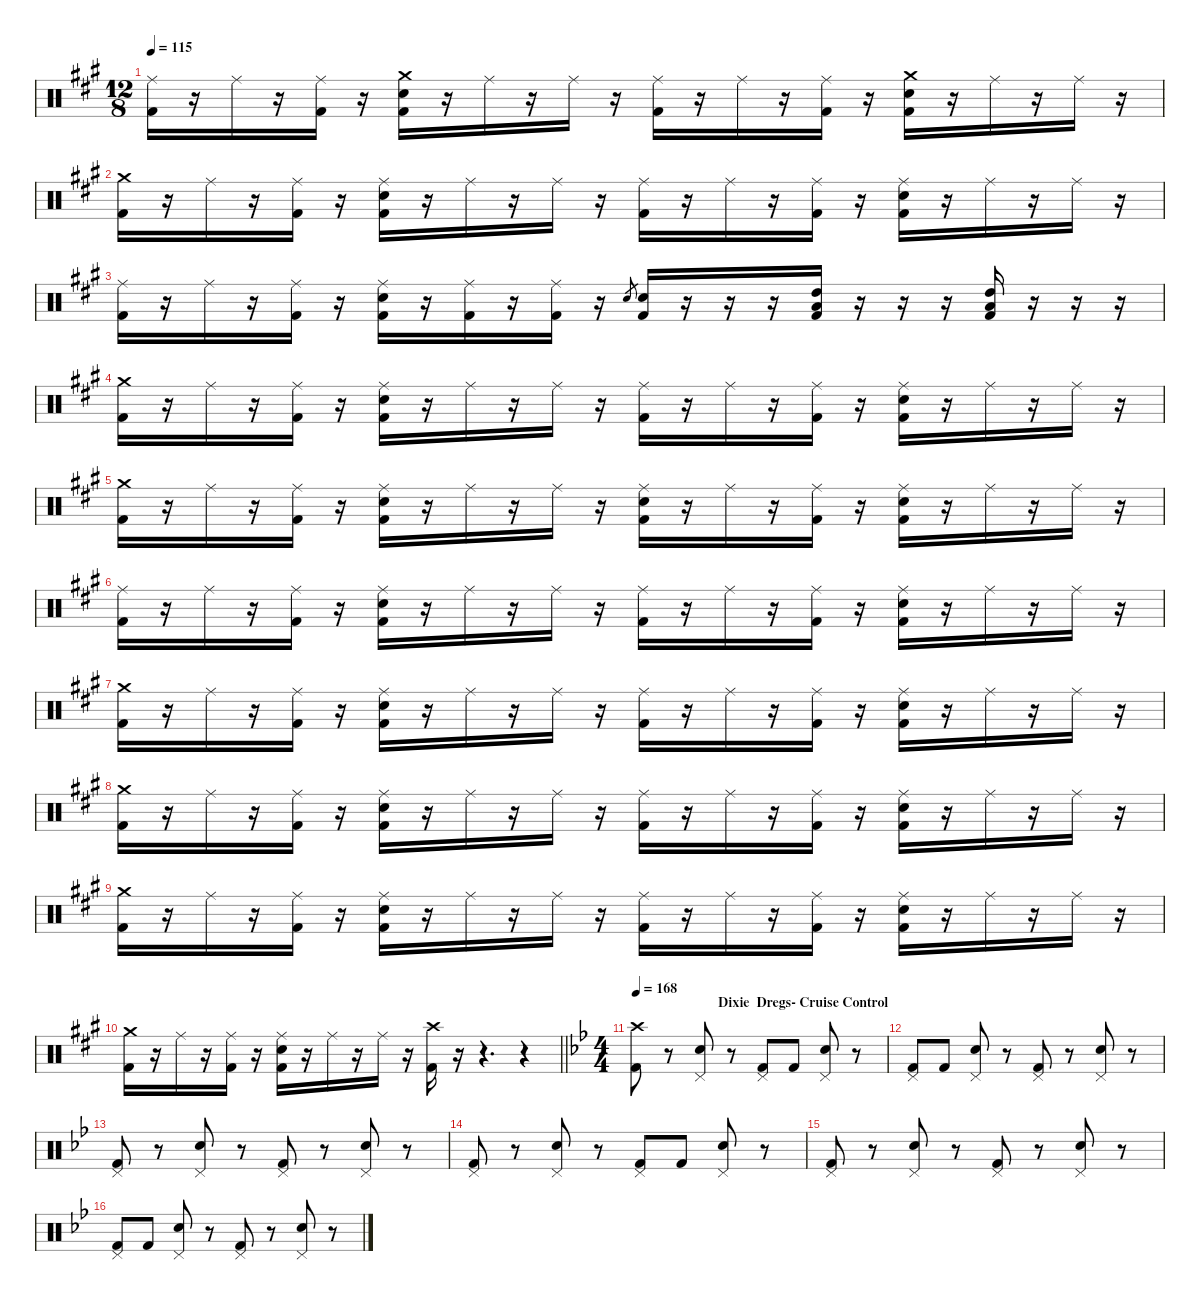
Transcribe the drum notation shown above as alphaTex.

\defaultSystemsLayout 4
\hideDynamics
\bracketExtendMode nobrackets
\singleTrackTrackNamePolicy hidden
\multiTrackTrackNamePolicy hidden
\firstSystemTrackNameMode fullname
\otherSystemsTrackNameOrientation horizontal
\track ("DRUMS" "drm.") {instrument percussion}
\staff {score}
\articulation defaults
\ts (12 8)
\tempo 115
\clef neutral
\ks a
("Ride (middle)"{acc forcenatural} "Kick (hit) 2"{acc forcenatural}).16{dy f beam Down} r.16{beam Down} "Ride (middle)"{acc forcenatural}.16{dy ff beam Down} r.16{beam Down} ("Ride (middle)"{acc forcenatural} "Kick (hit) 2"{acc forcenatural}).16{beam Down} r.16{beam Down} ("Crash medium (hit)"{acc forcenatural} "Snare (hit) 2"{acc forcenatural} "Kick (hit) 2"{acc forcenatural}).16{dy f beam Down} r.16{beam Down} "Ride (middle)"{acc forcenatural}.16{dy ff beam Down} r.16{beam Down} "Ride (middle)"{acc forcenatural}.16{beam Down} r.16{beam Down} ("Ride (middle)"{acc forcenatural} "Kick (hit) 2"{acc forcenatural}).16{dy f beam Down} r.16{beam Down} "Ride (middle)"{acc forcenatural}.16{dy ff beam Down} r.16{beam Down} ("Ride (middle)"{acc forcenatural} "Kick (hit) 2"{acc forcenatural}).16{beam Down} r.16{beam Down} ("Crash medium (hit)"{acc forcenatural} "Snare (hit) 2"{acc forcenatural} "Kick (hit) 2"{acc forcenatural}).16{dy f beam Down} r.16{beam Down} "Ride (middle)"{acc forcenatural}.16{dy ff beam Down} r.16{beam Down} "Ride (middle)"{acc forcenatural}.16{beam Down} r.16{beam Down} |
("Crash medium (hit)"{acc forcenatural} "Kick (hit) 2"{acc forcenatural}).16{dy f beam Down} r.16{beam Down} "Ride (middle)"{acc forcenatural}.16{dy ff beam Down} r.16{beam Down} ("Ride (middle)"{acc forcenatural} "Kick (hit) 2"{acc forcenatural}).16{beam Down} r.16{beam Down} ("Ride (middle)"{acc forcenatural} "Snare (hit) 2"{acc forcenatural} "Kick (hit) 2"{acc forcenatural}).16{dy f beam Down} r.16{beam Down} "Ride (middle)"{acc forcenatural}.16{dy ff beam Down} r.16{beam Down} "Ride (middle)"{acc forcenatural}.16{beam Down} r.16{beam Down} ("Ride (middle)"{acc forcenatural} "Kick (hit) 2"{acc forcenatural}).16{dy f beam Down} r.16{beam Down} "Ride (middle)"{acc forcenatural}.16{dy ff beam Down} r.16{beam Down} ("Ride (middle)"{acc forcenatural} "Kick (hit) 2"{acc forcenatural}).16{beam Down} r.16{beam Down} ("Ride (middle)"{acc forcenatural} "Snare (hit) 2"{acc forcenatural} "Kick (hit) 2"{acc forcenatural}).16{dy f beam Down} r.16{beam Down} "Ride (middle)"{acc forcenatural}.16{dy ff beam Down} r.16{beam Down} "Ride (middle)"{acc forcenatural}.16{beam Down} r.16{beam Down} |
("Ride (middle)"{acc forcenatural} "Kick (hit) 2"{acc forcenatural}).16{dy f beam Down} r.16{beam Down} "Ride (middle)"{acc forcenatural}.16{dy ff beam Down} r.16{beam Down} ("Ride (middle)"{acc forcenatural} "Kick (hit) 2"{acc forcenatural}).16{beam Down} r.16{beam Down} ("Ride (middle)"{acc forcenatural} "Snare (hit) 2"{acc forcenatural} "Kick (hit) 2"{acc forcenatural}).16{dy f beam Down} r.16{beam Down} ("Ride (middle)"{acc forcenatural} "Kick (hit) 2"{acc forcenatural}).16{dy ff beam Down} r.16{beam Down} ("Ride (middle)"{acc forcenatural} "Kick (hit) 2"{acc forcenatural}).16{beam Down} r.16{beam Down} "Electric Snare (hit)"{acc forcenatural}.8{gr dy f beam Up} ("Snare (hit) 2"{acc forcenatural} "Kick (hit) 2"{acc forcenatural}).16{dy ff beam Up} r.16{beam Up} r.16{beam Up} r.16{beam Up} ("High Tom (hit)"{acc forcenatural} "Low Tom (hit)"{acc forcenatural} "Kick (hit) 2"{acc forcenatural}).16{beam Up} r.16{beam Up} r.16{beam Up} r.16{beam Up} ("High Tom (hit)"{acc forcenatural} "Low Tom (hit)"{acc forcenatural} "Kick (hit) 2"{acc forcenatural}).16{beam Up} r.16{beam Up} r.16{beam Up} r.16{beam Up} |
("Crash medium (hit)"{acc forcenatural} "Kick (hit) 2"{acc forcenatural}).16{dy f beam Down} r.16{beam Down} "Ride (middle)"{acc forcenatural}.16{dy ff beam Down} r.16{beam Down} ("Ride (middle)"{acc forcenatural} "Kick (hit) 2"{acc forcenatural}).16{beam Down} r.16{beam Down} ("Ride (middle)"{acc forcenatural} "Snare (hit) 2"{acc forcenatural} "Kick (hit) 2"{acc forcenatural}).16{dy f beam Down} r.16{beam Down} "Ride (middle)"{acc forcenatural}.16{dy ff beam Down} r.16{beam Down} "Ride (middle)"{acc forcenatural}.16{beam Down} r.16{beam Down} ("Ride (middle)"{acc forcenatural} "Kick (hit) 2"{acc forcenatural}).16{dy f beam Down} r.16{beam Down} "Ride (middle)"{acc forcenatural}.16{dy ff beam Down} r.16{beam Down} ("Ride (middle)"{acc forcenatural} "Kick (hit) 2"{acc forcenatural}).16{beam Down} r.16{beam Down} ("Ride (middle)"{acc forcenatural} "Snare (hit) 2"{acc forcenatural} "Kick (hit) 2"{acc forcenatural}).16{dy f beam Down} r.16{beam Down} "Ride (middle)"{acc forcenatural}.16{dy ff beam Down} r.16{beam Down} "Ride (middle)"{acc forcenatural}.16{beam Down} r.16{beam Down} |
("Crash medium (hit)"{acc forcenatural} "Kick (hit) 2"{acc forcenatural}).16{dy f beam Down} r.16{beam Down} "Ride (middle)"{acc forcenatural}.16{dy ff beam Down} r.16{beam Down} ("Ride (middle)"{acc forcenatural} "Kick (hit) 2"{acc forcenatural}).16{beam Down} r.16{beam Down} ("Ride (middle)"{acc forcenatural} "Snare (hit) 2"{acc forcenatural} "Kick (hit) 2"{acc forcenatural}).16{dy f beam Down} r.16{beam Down} "Ride (middle)"{acc forcenatural}.16{dy ff beam Down} r.16{beam Down} "Ride (middle)"{acc forcenatural}.16{beam Down} r.16{beam Down} ("Ride (middle)"{acc forcenatural} "Snare (hit) 2"{acc forcenatural} "Kick (hit) 2"{acc forcenatural}).16{dy f beam Down} r.16{beam Down} "Ride (middle)"{acc forcenatural}.16{dy ff beam Down} r.16{beam Down} ("Ride (middle)"{acc forcenatural} "Kick (hit) 2"{acc forcenatural}).16{beam Down} r.16{beam Down} ("Ride (middle)"{acc forcenatural} "Snare (hit) 2"{acc forcenatural} "Kick (hit) 2"{acc forcenatural}).16{dy f beam Down} r.16{beam Down} "Ride (middle)"{acc forcenatural}.16{dy ff beam Down} r.16{beam Down} "Ride (middle)"{acc forcenatural}.16{beam Down} r.16{beam Down} |
("Ride (middle)"{acc forcenatural} "Kick (hit) 2"{acc forcenatural}).16{dy f beam Down} r.16{beam Down} "Ride (middle)"{acc forcenatural}.16{dy ff beam Down} r.16{beam Down} ("Ride (middle)"{acc forcenatural} "Kick (hit) 2"{acc forcenatural}).16{beam Down} r.16{beam Down} ("Ride (middle)"{acc forcenatural} "Snare (hit) 2"{acc forcenatural} "Kick (hit) 2"{acc forcenatural}).16{dy f beam Down} r.16{beam Down} "Ride (middle)"{acc forcenatural}.16{dy ff beam Down} r.16{beam Down} "Ride (middle)"{acc forcenatural}.16{beam Down} r.16{beam Down} ("Ride (middle)"{acc forcenatural} "Kick (hit) 2"{acc forcenatural}).16{dy f beam Down} r.16{beam Down} "Ride (middle)"{acc forcenatural}.16{dy ff beam Down} r.16{beam Down} ("Ride (middle)"{acc forcenatural} "Kick (hit) 2"{acc forcenatural}).16{beam Down} r.16{beam Down} ("Ride (middle)"{acc forcenatural} "Snare (hit) 2"{acc forcenatural} "Kick (hit) 2"{acc forcenatural}).16{dy f beam Down} r.16{beam Down} "Ride (middle)"{acc forcenatural}.16{dy ff beam Down} r.16{beam Down} "Ride (middle)"{acc forcenatural}.16{beam Down} r.16{beam Down} |
("Crash medium (hit)"{acc forcenatural} "Kick (hit) 2"{acc forcenatural}).16{dy f beam Down} r.16{beam Down} "Ride (middle)"{acc forcenatural}.16{dy ff beam Down} r.16{beam Down} ("Ride (middle)"{acc forcenatural} "Kick (hit) 2"{acc forcenatural}).16{beam Down} r.16{beam Down} ("Ride (middle)"{acc forcenatural} "Snare (hit) 2"{acc forcenatural} "Kick (hit) 2"{acc forcenatural}).16{dy f beam Down} r.16{beam Down} "Ride (middle)"{acc forcenatural}.16{dy ff beam Down} r.16{beam Down} "Ride (middle)"{acc forcenatural}.16{beam Down} r.16{beam Down} ("Ride (middle)"{acc forcenatural} "Kick (hit) 2"{acc forcenatural}).16{dy f beam Down} r.16{beam Down} "Ride (middle)"{acc forcenatural}.16{dy ff beam Down} r.16{beam Down} ("Ride (middle)"{acc forcenatural} "Kick (hit) 2"{acc forcenatural}).16{beam Down} r.16{beam Down} ("Ride (middle)"{acc forcenatural} "Snare (hit) 2"{acc forcenatural} "Kick (hit) 2"{acc forcenatural}).16{dy f beam Down} r.16{beam Down} "Ride (middle)"{acc forcenatural}.16{dy ff beam Down} r.16{beam Down} "Ride (middle)"{acc forcenatural}.16{beam Down} r.16{beam Down} |
("Crash medium (hit)"{acc forcenatural} "Kick (hit) 2"{acc forcenatural}).16{dy f beam Down} r.16{beam Down} "Ride (middle)"{acc forcenatural}.16{dy ff beam Down} r.16{beam Down} ("Ride (middle)"{acc forcenatural} "Kick (hit) 2"{acc forcenatural}).16{beam Down} r.16{beam Down} ("Ride (middle)"{acc forcenatural} "Snare (hit) 2"{acc forcenatural} "Kick (hit) 2"{acc forcenatural}).16{dy f beam Down} r.16{beam Down} "Ride (middle)"{acc forcenatural}.16{dy ff beam Down} r.16{beam Down} "Ride (middle)"{acc forcenatural}.16{beam Down} r.16{beam Down} ("Ride (middle)"{acc forcenatural} "Kick (hit) 2"{acc forcenatural}).16{dy f beam Down} r.16{beam Down} "Ride (middle)"{acc forcenatural}.16{dy ff beam Down} r.16{beam Down} ("Ride (middle)"{acc forcenatural} "Kick (hit) 2"{acc forcenatural}).16{beam Down} r.16{beam Down} ("Ride (middle)"{acc forcenatural} "Snare (hit) 2"{acc forcenatural} "Kick (hit) 2"{acc forcenatural}).16{dy f beam Down} r.16{beam Down} "Ride (middle)"{acc forcenatural}.16{dy ff beam Down} r.16{beam Down} "Ride (middle)"{acc forcenatural}.16{beam Down} r.16{beam Down} |
("Crash medium (hit)"{acc forcenatural} "Kick (hit) 2"{acc forcenatural}).16{dy f beam Down} r.16{beam Down} "Ride (middle)"{acc forcenatural}.16{dy ff beam Down} r.16{beam Down} ("Ride (middle)"{acc forcenatural} "Kick (hit) 2"{acc forcenatural}).16{beam Down} r.16{beam Down} ("Ride (middle)"{acc forcenatural} "Snare (hit) 2"{acc forcenatural} "Kick (hit) 2"{acc forcenatural}).16{dy f beam Down} r.16{beam Down} "Ride (middle)"{acc forcenatural}.16{dy ff beam Down} r.16{beam Down} "Ride (middle)"{acc forcenatural}.16{beam Down} r.16{beam Down} ("Ride (middle)"{acc forcenatural} "Kick (hit) 2"{acc forcenatural}).16{dy f beam Down} r.16{beam Down} "Ride (middle)"{acc forcenatural}.16{dy ff beam Down} r.16{beam Down} ("Ride (middle)"{acc forcenatural} "Kick (hit) 2"{acc forcenatural}).16{beam Down} r.16{beam Down} ("Ride (middle)"{acc forcenatural} "Snare (hit) 2"{acc forcenatural} "Kick (hit) 2"{acc forcenatural}).16{dy f beam Down} r.16{beam Down} "Ride (middle)"{acc forcenatural}.16{dy ff beam Down} r.16{beam Down} "Ride (middle)"{acc forcenatural}.16{beam Down} r.16{beam Down} |
\barLineRight lightlight
("Crash medium (hit)"{acc forcenatural} "Kick (hit) 2"{acc forcenatural}).16{dy f beam Down} r.16{beam Down} "Ride (middle)"{acc forcenatural}.16{dy ff beam Down} r.16{beam Down} ("Ride (middle)"{acc forcenatural} "Kick (hit) 2"{acc forcenatural}).16{beam Down} r.16{beam Down} ("Ride (middle)"{acc forcenatural} "Snare (hit) 2"{acc forcenatural} "Kick (hit) 2"{acc forcenatural}).16{dy f beam Down} r.16{beam Down} "Ride (middle)"{acc forcenatural}.16{dy ff beam Down} r.16{beam Down} "Ride (middle)"{acc forcenatural}.16{beam Down} r.16{beam Down} ("Crash high (hit)"{acc forcenatural} "Kick (hit) 2"{acc forcenatural}).16{dy f beam Down} r.16{beam Down} r.4{d beam Down} r.4{beam Down} |
\ts (4 4)
\beaming (8 2 2 2 2)
\section ("" "                         Dixie  Dregs- Cruise Control")
\tempo 168
\ks bb
("Crash high (hit)"{acc forcenatural} "Kick (hit) 2"{acc forcenatural}).8{dy ff beam Down} r.8{beam Down} ("Pedal Hi-Hat (hit)"{acc forcenatural} "Snare (hit) 2"{acc forcenatural}).8{beam Up} r.8{beam Up} ("Pedal Hi-Hat (hit)"{acc forcenatural} "Kick (hit) 2"{acc forcenatural}).8{beam Up} "Kick (hit) 2"{acc forcenatural}.8{dy f beam Up} ("Pedal Hi-Hat (hit)"{acc forcenatural} "Snare (hit) 2"{acc forcenatural}).8{dy ff beam Up} r.8{beam Up} |
("Pedal Hi-Hat (hit)"{acc forcenatural} "Kick (hit) 2"{acc forcenatural}).8{beam Up} "Kick (hit) 2"{acc forcenatural}.8{dy f beam Up} ("Pedal Hi-Hat (hit)"{acc forcenatural} "Snare (hit) 2"{acc forcenatural}).8{dy ff beam Up} r.8{beam Up} ("Pedal Hi-Hat (hit)"{acc forcenatural} "Kick (hit) 2"{acc forcenatural}).8{beam Up} r.8{beam Up} ("Pedal Hi-Hat (hit)"{acc forcenatural} "Snare (hit) 2"{acc forcenatural}).8{beam Up} r.8{beam Up} |
("Pedal Hi-Hat (hit)"{acc forcenatural} "Kick (hit) 2"{acc forcenatural}).8{beam Up} r.8{beam Up} ("Pedal Hi-Hat (hit)"{acc forcenatural} "Snare (hit) 2"{acc forcenatural}).8{beam Up} r.8{beam Up} ("Pedal Hi-Hat (hit)"{acc forcenatural} "Kick (hit) 2"{acc forcenatural}).8{beam Up} r.8{beam Up} ("Pedal Hi-Hat (hit)"{acc forcenatural} "Snare (hit) 2"{acc forcenatural}).8{beam Up} r.8{beam Up} |
("Pedal Hi-Hat (hit)"{acc forcenatural} "Kick (hit) 2"{acc forcenatural}).8{beam Up} r.8{beam Up} ("Pedal Hi-Hat (hit)"{acc forcenatural} "Snare (hit) 2"{acc forcenatural}).8{beam Up} r.8{beam Up} ("Pedal Hi-Hat (hit)"{acc forcenatural} "Kick (hit) 2"{acc forcenatural}).8{beam Up} "Kick (hit) 2"{acc forcenatural}.8{dy f beam Up} ("Pedal Hi-Hat (hit)"{acc forcenatural} "Snare (hit) 2"{acc forcenatural}).8{dy ff beam Up} r.8{beam Up} |
("Pedal Hi-Hat (hit)"{acc forcenatural} "Kick (hit) 2"{acc forcenatural}).8{beam Up} r.8{beam Up} ("Pedal Hi-Hat (hit)"{acc forcenatural} "Snare (hit) 2"{acc forcenatural}).8{beam Up} r.8{beam Up} ("Pedal Hi-Hat (hit)"{acc forcenatural} "Kick (hit) 2"{acc forcenatural}).8{beam Up} r.8{beam Up} ("Pedal Hi-Hat (hit)"{acc forcenatural} "Snare (hit) 2"{acc forcenatural}).8{beam Up} r.8{beam Up} |
("Pedal Hi-Hat (hit)"{acc forcenatural} "Kick (hit) 2"{acc forcenatural}).8{beam Up} "Kick (hit) 2"{acc forcenatural}.8{dy f beam Up} ("Pedal Hi-Hat (hit)"{acc forcenatural} "Snare (hit) 2"{acc forcenatural}).8{dy ff beam Up} r.8{beam Up} ("Pedal Hi-Hat (hit)"{acc forcenatural} "Kick (hit) 2"{acc forcenatural}).8{beam Up} r.8{beam Up} ("Pedal Hi-Hat (hit)"{acc forcenatural} "Snare (hit) 2"{acc forcenatural}).8{beam Up} r.8{beam Up}
